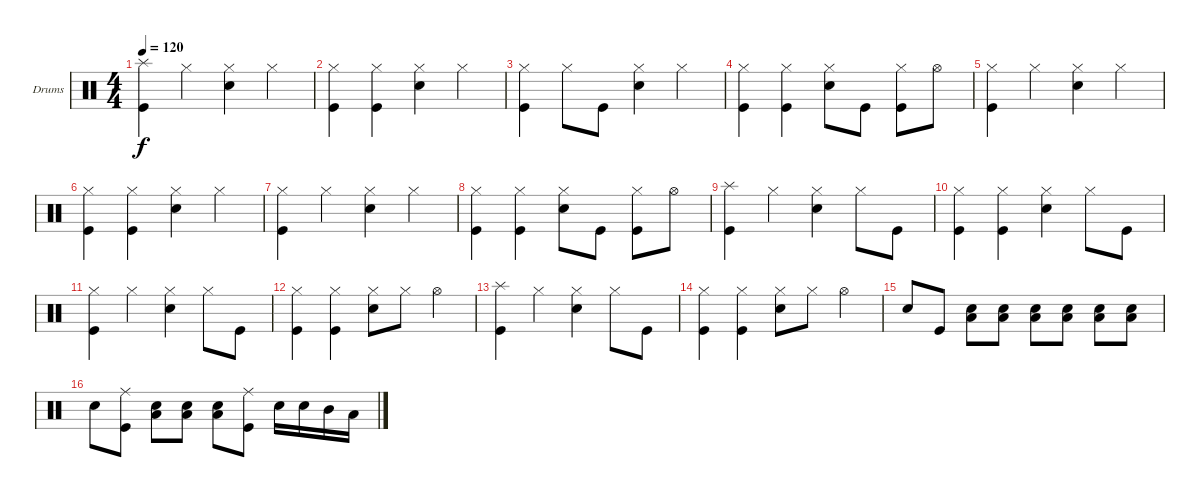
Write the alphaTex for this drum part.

\bracketExtendMode groupsimilarinstruments
\firstSystemTrackNameOrientation horizontal
\otherSystemsTrackNameOrientation horizontal
\track ("Drumkit" "Drums") {instrument percussion}
\staff {score}
\articulation defaults
\ts (4 4)
\tempo 120
\clef neutral
\scale
0.333333
\ks c
("Kick (hit)" "Splash (hit)").4{dy f} "Hi-Hat (closed)".4 ("Hi-Hat (closed)" "Snare (hit) 2").4 "Hi-Hat (closed)".4 |
\scale
0.333333 ("Hi-Hat (closed)" "Kick (hit)").4 ("Hi-Hat (closed)" "Kick (hit)").4 ("Hi-Hat (closed)" "Snare (hit) 2").4 "Hi-Hat (closed)".4 |
\scale
0.333333 ("Kick (hit)" "Hi-Hat (closed)").4 "Hi-Hat (closed)".8 "Kick (hit)".8 ("Hi-Hat (closed)" "Snare (hit) 2").4 "Hi-Hat (closed)".4 |
\scale
0.333333 ("Kick (hit)" "Hi-Hat (closed)").4 ("Kick (hit)" "Hi-Hat (closed)").4 ("Hi-Hat (closed)" "Snare (hit) 2").8 "Kick (hit)".8 ("Kick (hit)" "Hi-Hat (closed)").8 "Hi-Hat (open)".8 |
\scale
0.333333 ("Kick (hit)" "Hi-Hat (closed)").4 "Hi-Hat (closed)".4 ("Hi-Hat (closed)" "Snare (hit) 2").4 "Hi-Hat (closed)".4 |
\scale
0.333333 ("Hi-Hat (closed)" "Kick (hit)").4 ("Hi-Hat (closed)" "Kick (hit)").4 ("Hi-Hat (closed)" "Snare (hit) 2").4 "Hi-Hat (closed)".4 |
\scale
0.333333 ("Kick (hit)" "Hi-Hat (closed)").4 "Hi-Hat (closed)".4 ("Hi-Hat (closed)" "Snare (hit) 2").4 "Hi-Hat (closed)".4 |
\scale
0.333333 ("Kick (hit)" "Hi-Hat (closed)").4 ("Kick (hit)" "Hi-Hat (closed)").4 ("Hi-Hat (closed)" "Snare (hit) 2").8 "Kick (hit)".8 ("Kick (hit)" "Hi-Hat (closed)").8 "Hi-Hat (open)".8 |
\scale
0.333333 ("Kick (hit)" "Splash (hit)").4 "Hi-Hat (closed)".4 ("Hi-Hat (closed)" "Snare (hit) 2").4 "Hi-Hat (closed)".8 "Kick (hit)".8 |
\scale
0.333333 ("Hi-Hat (closed)" "Kick (hit)").4 ("Hi-Hat (closed)" "Kick (hit)").4 ("Hi-Hat (closed)" "Snare (hit) 2").4 "Hi-Hat (closed)".8 "Kick (hit)".8 |
\scale
0.333333 ("Kick (hit)" "Hi-Hat (closed)").4 "Hi-Hat (closed)".4 ("Hi-Hat (closed)" "Snare (hit) 2").4 "Hi-Hat (closed)".8 "Kick (hit)".8 |
\scale
0.333333 ("Kick (hit)" "Hi-Hat (closed)").4 ("Kick (hit)" "Hi-Hat (closed)").4 ("Hi-Hat (closed)" "Snare (hit) 2").8 "Hi-Hat (closed)".8 "Hi-Hat (open)".4 |
\scale
0.333333 ("Kick (hit)" "Splash (hit)").4 "Hi-Hat (closed)".4 ("Hi-Hat (closed)" "Snare (hit) 2").4 "Hi-Hat (closed)".8 "Kick (hit)".8 |
\scale
0.333333 ("Kick (hit)" "Hi-Hat (closed)").4 ("Kick (hit)" "Hi-Hat (closed)").4 ("Hi-Hat (closed)" "Snare (hit) 2").8 "Hi-Hat (closed)".8 "Hi-Hat (open)".4 |
\scale
0.333333 "Snare (hit) 2".8 "Kick (hit)".8 ("Snare (hit) 2" "Low Tom (hit)").8 ("Snare (hit) 2" "Low Tom (hit)").8 ("Snare (hit) 2" "Low Tom (hit)").8 ("Snare (hit) 2" "Low Tom (hit)").8 ("Snare (hit) 2" "Low Tom (hit)").8 ("Snare (hit) 2" "Low Tom (hit)").8 |
\scale
0.333333 "Snare (hit) 2".8 ("Kick (hit)" "Ride (middle)").8 ("Snare (hit) 2" "Low Tom (hit)").8 ("Snare (hit) 2" "Low Tom (hit)").8 ("Snare (hit) 2" "Low Tom (hit)").8 ("Kick (hit)" "Ride (middle)").8 "Snare (hit) 2".16 "Snare (hit) 2".16 "Mid Tom (hit)".16 "Low Tom (hit)".16
